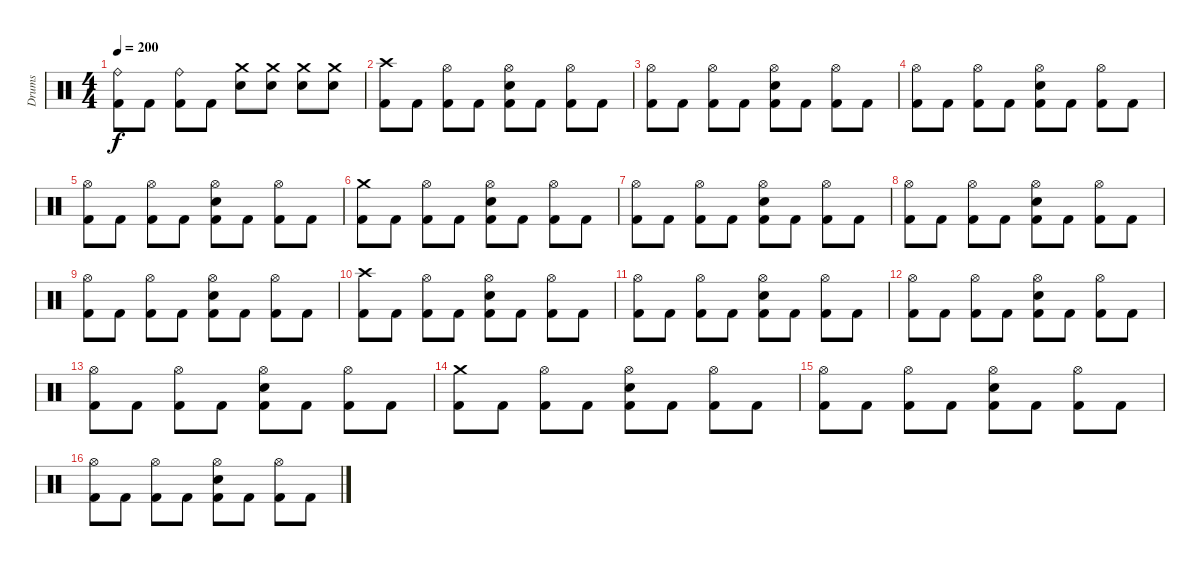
\track ("Drums" "Drums") {instrument percussion}
\staff {score}
\articulation defaults
\ts (4 4)
\tempo 200
\clef neutral
\ks c
("Ride (bell)" "Kick (hit) 2").8{dy f} "Kick (hit) 2".8 ("Ride (bell)" "Kick (hit) 2").8 "Kick (hit) 2".8 ("Crash medium (hit)" "Snare (hit) 2").8 ("Crash medium (hit)" "Snare (hit) 2").8 ("Crash medium (hit)" "Snare (hit) 2").8 ("Crash medium (hit)" "Snare (hit) 2").8 |
("Crash high (hit)" "Kick (hit) 2").8 "Kick (hit) 2".8 ("Hi-Hat (open)" "Kick (hit) 2").8 "Kick (hit) 2".8 ("Hi-Hat (open)" "Snare (hit) 2" "Kick (hit) 2").8 "Kick (hit) 2".8 ("Hi-Hat (open)" "Kick (hit) 2").8 "Kick (hit) 2".8 |
("Hi-Hat (open)" "Kick (hit) 2").8 "Kick (hit) 2".8 ("Hi-Hat (open)" "Kick (hit) 2").8 "Kick (hit) 2".8 ("Hi-Hat (open)" "Snare (hit) 2" "Kick (hit) 2").8 "Kick (hit) 2".8 ("Hi-Hat (open)" "Kick (hit) 2").8 "Kick (hit) 2".8 |
("Hi-Hat (open)" "Kick (hit) 2").8 "Kick (hit) 2".8 ("Hi-Hat (open)" "Kick (hit) 2").8 "Kick (hit) 2".8 ("Hi-Hat (open)" "Snare (hit) 2" "Kick (hit) 2").8 "Kick (hit) 2".8 ("Hi-Hat (open)" "Kick (hit) 2").8 "Kick (hit) 2".8 |
("Hi-Hat (open)" "Kick (hit) 2").8 "Kick (hit) 2".8 ("Hi-Hat (open)" "Kick (hit) 2").8 "Kick (hit) 2".8 ("Hi-Hat (open)" "Snare (hit) 2" "Kick (hit) 2").8 "Kick (hit) 2".8 ("Hi-Hat (open)" "Kick (hit) 2").8 "Kick (hit) 2".8 |
("Crash medium (hit)" "Kick (hit) 2").8 "Kick (hit) 2".8 ("Hi-Hat (open)" "Kick (hit) 2").8 "Kick (hit) 2".8 ("Hi-Hat (open)" "Snare (hit) 2" "Kick (hit) 2").8 "Kick (hit) 2".8 ("Hi-Hat (open)" "Kick (hit) 2").8 "Kick (hit) 2".8 |
("Hi-Hat (open)" "Kick (hit) 2").8 "Kick (hit) 2".8 ("Hi-Hat (open)" "Kick (hit) 2").8 "Kick (hit) 2".8 ("Hi-Hat (open)" "Snare (hit) 2" "Kick (hit) 2").8 "Kick (hit) 2".8 ("Hi-Hat (open)" "Kick (hit) 2").8 "Kick (hit) 2".8 |
("Hi-Hat (open)" "Kick (hit) 2").8 "Kick (hit) 2".8 ("Hi-Hat (open)" "Kick (hit) 2").8 "Kick (hit) 2".8 ("Hi-Hat (open)" "Snare (hit) 2" "Kick (hit) 2").8 "Kick (hit) 2".8 ("Hi-Hat (open)" "Kick (hit) 2").8 "Kick (hit) 2".8 |
("Hi-Hat (open)" "Kick (hit) 2").8 "Kick (hit) 2".8 ("Hi-Hat (open)" "Kick (hit) 2").8 "Kick (hit) 2".8 ("Hi-Hat (open)" "Snare (hit) 2" "Kick (hit) 2").8 "Kick (hit) 2".8 ("Hi-Hat (open)" "Kick (hit) 2").8 "Kick (hit) 2".8 |
("Crash high (hit)" "Kick (hit) 2").8 "Kick (hit) 2".8 ("Hi-Hat (open)" "Kick (hit) 2").8 "Kick (hit) 2".8 ("Hi-Hat (open)" "Snare (hit) 2" "Kick (hit) 2").8 "Kick (hit) 2".8 ("Hi-Hat (open)" "Kick (hit) 2").8 "Kick (hit) 2".8 |
("Hi-Hat (open)" "Kick (hit) 2").8 "Kick (hit) 2".8 ("Hi-Hat (open)" "Kick (hit) 2").8 "Kick (hit) 2".8 ("Hi-Hat (open)" "Snare (hit) 2" "Kick (hit) 2").8 "Kick (hit) 2".8 ("Hi-Hat (open)" "Kick (hit) 2").8 "Kick (hit) 2".8 |
("Hi-Hat (open)" "Kick (hit) 2").8 "Kick (hit) 2".8 ("Hi-Hat (open)" "Kick (hit) 2").8 "Kick (hit) 2".8 ("Hi-Hat (open)" "Snare (hit) 2" "Kick (hit) 2").8 "Kick (hit) 2".8 ("Hi-Hat (open)" "Kick (hit) 2").8 "Kick (hit) 2".8 |
("Hi-Hat (open)" "Kick (hit) 2").8 "Kick (hit) 2".8 ("Hi-Hat (open)" "Kick (hit) 2").8 "Kick (hit) 2".8 ("Hi-Hat (open)" "Snare (hit) 2" "Kick (hit) 2").8 "Kick (hit) 2".8 ("Hi-Hat (open)" "Kick (hit) 2").8 "Kick (hit) 2".8 |
("Crash medium (hit)" "Kick (hit) 2").8 "Kick (hit) 2".8 ("Hi-Hat (open)" "Kick (hit) 2").8 "Kick (hit) 2".8 ("Hi-Hat (open)" "Snare (hit) 2" "Kick (hit) 2").8 "Kick (hit) 2".8 ("Hi-Hat (open)" "Kick (hit) 2").8 "Kick (hit) 2".8 |
("Hi-Hat (open)" "Kick (hit) 2").8 "Kick (hit) 2".8 ("Hi-Hat (open)" "Kick (hit) 2").8 "Kick (hit) 2".8 ("Hi-Hat (open)" "Snare (hit) 2" "Kick (hit) 2").8 "Kick (hit) 2".8 ("Hi-Hat (open)" "Kick (hit) 2").8 "Kick (hit) 2".8 |
("Hi-Hat (open)" "Kick (hit) 2").8 "Kick (hit) 2".8 ("Hi-Hat (open)" "Kick (hit) 2").8 "Kick (hit) 2".8 ("Hi-Hat (open)" "Snare (hit) 2" "Kick (hit) 2").8 "Kick (hit) 2".8 ("Hi-Hat (open)" "Kick (hit) 2").8 "Kick (hit) 2".8
